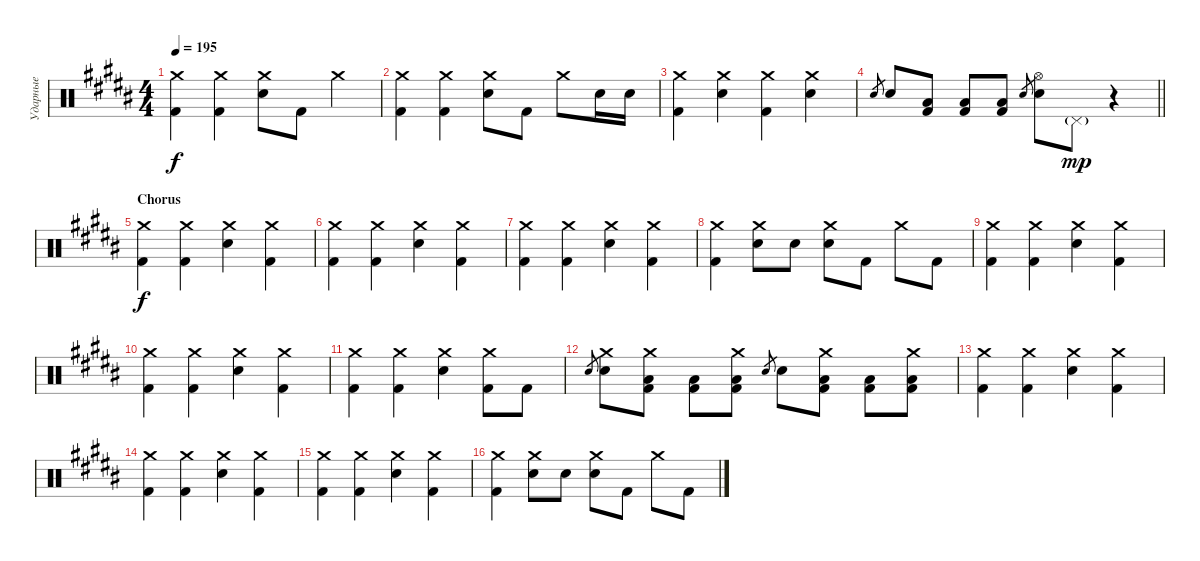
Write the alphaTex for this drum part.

\track ("Ударные" "Ударные") {instrument percussion}
\staff {score}
\articulation defaults
\ts (4 4)
\tempo 195
\clef neutral
\ks b
("Crash medium (hit)" "Kick (hit) 2").4{dy f} ("Crash medium (hit)" "Kick (hit) 2").4 ("Crash medium (hit)" "Electric Snare (hit)").8 "Kick (hit) 2".8 "Crash medium (hit)".4 |
("Crash medium (hit)" "Kick (hit) 2").4 ("Crash medium (hit)" "Kick (hit) 2").4 ("Crash medium (hit)" "Electric Snare (hit)").8 "Kick (hit) 2".8 "Crash medium (hit)".8 "Electric Snare (hit)".16 "Electric Snare (hit)".16 |
("Crash medium (hit)" "Kick (hit) 2").4 ("Crash medium (hit)" "Electric Snare (hit)").4 ("Crash medium (hit)" "Kick (hit) 2").4 ("Crash medium (hit)" "Electric Snare (hit)").4 |
\barLineRight lightlight "Electric Snare (hit)".8{gr} "Electric Snare (hit)".8
("Low Tom (hit)" "Kick (hit) 2").8 ("Low Tom (hit)" "Kick (hit) 2").8 ("Low Tom (hit)" "Kick (hit) 2").8 "Electric Snare (hit)".8{gr} ("Hi-Hat (open)" "Electric Snare (hit)").8 "Pedal Hi-Hat (hit)"{g}.8{dy mp} r.4 |
\section ("" "Chorus")
("Crash medium (hit)" "Kick (hit) 2").4{dy f} ("Crash medium (hit)" "Kick (hit) 2").4 ("Crash medium (hit)" "Electric Snare (hit)").4 ("Crash medium (hit)" "Kick (hit) 2").4 |
("Crash medium (hit)" "Kick (hit) 2").4 ("Crash medium (hit)" "Kick (hit) 2").4 ("Crash medium (hit)" "Electric Snare (hit)").4 ("Crash medium (hit)" "Kick (hit) 2").4 |
("Crash medium (hit)" "Kick (hit) 2").4 ("Crash medium (hit)" "Kick (hit) 2").4 ("Crash medium (hit)" "Electric Snare (hit)").4 ("Crash medium (hit)" "Kick (hit) 2").4 |
("Crash medium (hit)" "Kick (hit) 2").4 ("Crash medium (hit)" "Electric Snare (hit)").8 "Electric Snare (hit)".8 ("Crash medium (hit)" "Electric Snare (hit)").8 "Kick (hit) 2".8 "Crash medium (hit)".8 "Kick (hit) 2".8 |
("Crash medium (hit)" "Kick (hit) 2").4 ("Crash medium (hit)" "Kick (hit) 2").4 ("Crash medium (hit)" "Electric Snare (hit)").4 ("Crash medium (hit)" "Kick (hit) 2").4 |
("Crash medium (hit)" "Kick (hit) 2").4 ("Crash medium (hit)" "Kick (hit) 2").4 ("Crash medium (hit)" "Electric Snare (hit)").4 ("Crash medium (hit)" "Kick (hit) 2").4 |
("Crash medium (hit)" "Kick (hit) 2").4 ("Crash medium (hit)" "Kick (hit) 2").4 ("Crash medium (hit)" "Electric Snare (hit)").4 ("Crash medium (hit)" "Kick (hit) 2").8 "Kick (hit) 2".8 |
"Electric Snare (hit)".8{gr} ("Crash medium (hit)" "Electric Snare (hit)").8 ("Crash medium (hit)" "Low Tom (hit)" "Kick (hit) 2").8 ("Low Tom (hit)" "Kick (hit) 2").8 ("Crash medium (hit)" "Low Tom (hit)" "Kick (hit) 2").8 "Electric Snare (hit)".8{gr} "Electric Snare (hit)".8 ("Crash medium (hit)" "Low Tom (hit)" "Kick (hit) 2").8 ("Low Tom (hit)" "Kick (hit) 2").8 ("Crash medium (hit)" "Low Tom (hit)" "Kick (hit) 2").8 |
("Crash medium (hit)" "Kick (hit) 2").4 ("Crash medium (hit)" "Kick (hit) 2").4 ("Crash medium (hit)" "Electric Snare (hit)").4 ("Crash medium (hit)" "Kick (hit) 2").4 |
("Crash medium (hit)" "Kick (hit) 2").4 ("Crash medium (hit)" "Kick (hit) 2").4 ("Crash medium (hit)" "Electric Snare (hit)").4 ("Crash medium (hit)" "Kick (hit) 2").4 |
("Crash medium (hit)" "Kick (hit) 2").4 ("Crash medium (hit)" "Kick (hit) 2").4 ("Crash medium (hit)" "Electric Snare (hit)").4 ("Crash medium (hit)" "Kick (hit) 2").4 |
("Crash medium (hit)" "Kick (hit) 2").4 ("Crash medium (hit)" "Electric Snare (hit)").8 "Electric Snare (hit)".8 ("Crash medium (hit)" "Electric Snare (hit)").8 "Kick (hit) 2".8 "Crash medium (hit)".8 "Kick (hit) 2".8
